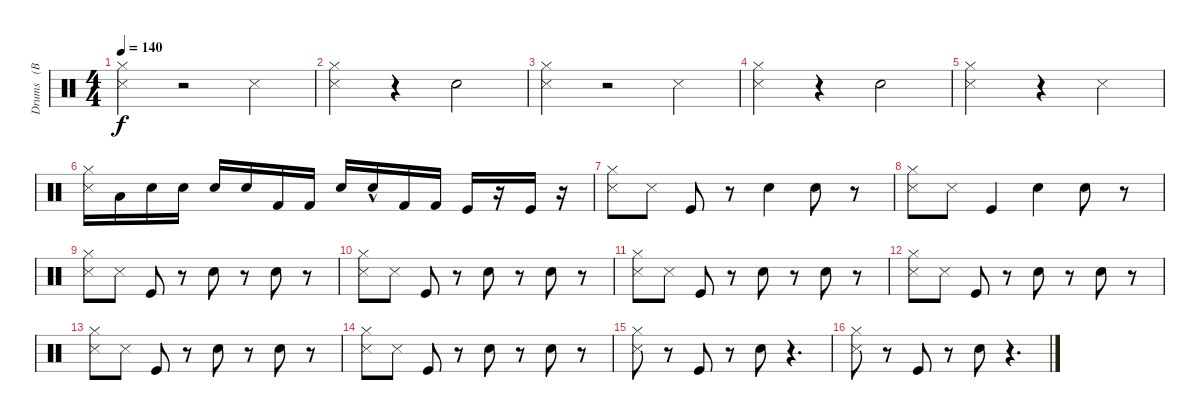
\track ("Drums   (BB)" "Drums   (B") {instrument percussion}
\staff {score}
\articulation defaults
\ts (4 4)
\tempo 140
\clef neutral
\ks c
("Metronome (hit)" "Hi-Hat (closed)").4{dy f volume 5} r.2 "Metronome (hit)".4 |
("Metronome (hit)" "Hi-Hat (closed)").4 r.4 "Snare (hit) 2".2{volume 5} |
("Metronome (hit)" "Hi-Hat (closed)").4 r.2 "Metronome (hit)".4 |
("Metronome (hit)" "Hi-Hat (closed)").4{volume 5} r.4 "Snare (hit) 2".2 |
("Metronome (hit)" "Hi-Hat (closed)").2{volume 6} r.4 "Metronome (hit)".4 |
("Metronome (hit)" "Hi-Hat (closed)").16 "Low Floor Tom (hit)".16 "Electric Snare (hit)".16 "Electric Snare (hit)".16 "Snare (hit) 2".16 "Snare (hit) 2".16 "Kick (hit) 2".16 "Kick (hit) 2".16 "Snare (hit) 2".16 "Snare (hit) 2"{hac}.16 "Kick (hit) 2".16 "Kick (hit) 2".16 "Kick (hit)".16 r.16 "Kick (hit)".16 r.16 |
("Metronome (hit)" "Hi-Hat (closed)").8 "Metronome (hit)".8 "Kick (hit)".8 r.8 "Snare (hit) 2".4 "Snare (hit) 2".8 r.8 |
("Metronome (hit)" "Hi-Hat (closed)").8 "Metronome (hit)".8 "Kick (hit)".4 "Snare (hit) 2".4 "Snare (hit) 2".8 r.8 |
("Metronome (hit)" "Hi-Hat (closed)").8 "Metronome (hit)".8 "Kick (hit)".8 r.8 "Snare (hit) 2".8 r.8 "Snare (hit) 2".8 r.8 |
("Metronome (hit)" "Hi-Hat (closed)").8 "Metronome (hit)".8 "Kick (hit)".8 r.8 "Snare (hit) 2".8{volume 9} r.8 "Snare (hit) 2".8 r.8 |
("Metronome (hit)" "Hi-Hat (closed)").8{volume 9} "Metronome (hit)".8{volume 9} "Kick (hit)".8{volume 9} r.8 "Snare (hit) 2".8{volume 9} r.8 "Snare (hit) 2".8{volume 8} r.8 |
("Metronome (hit)" "Hi-Hat (closed)").8 "Metronome (hit)".8{volume 9} "Kick (hit)".8{volume 8} r.8 "Snare (hit) 2".8{volume 7} r.8 "Snare (hit) 2".8{volume 7} r.8 |
("Metronome (hit)" "Hi-Hat (closed)").8{volume 7} "Metronome (hit)".8 "Kick (hit)".8{volume 8} r.8 "Snare (hit) 2".8{volume 8} r.8 "Snare (hit) 2".8 r.8 |
("Metronome (hit)" "Hi-Hat (closed)").8 "Metronome (hit)".8 "Kick (hit)".8 r.8 "Snare (hit) 2".8{volume 8} r.8 "Snare (hit) 2".8 r.8 |
("Metronome (hit)" "Hi-Hat (closed)").8{volume 8} r.8 "Kick (hit)".8{volume 7} r.8 "Snare (hit) 2".8{volume 7} r.4{d} |
("Metronome (hit)" "Hi-Hat (closed)").8{volume 6} r.8 "Kick (hit)".8{volume 5} r.8 "Snare (hit) 2".8 r.4{d}
